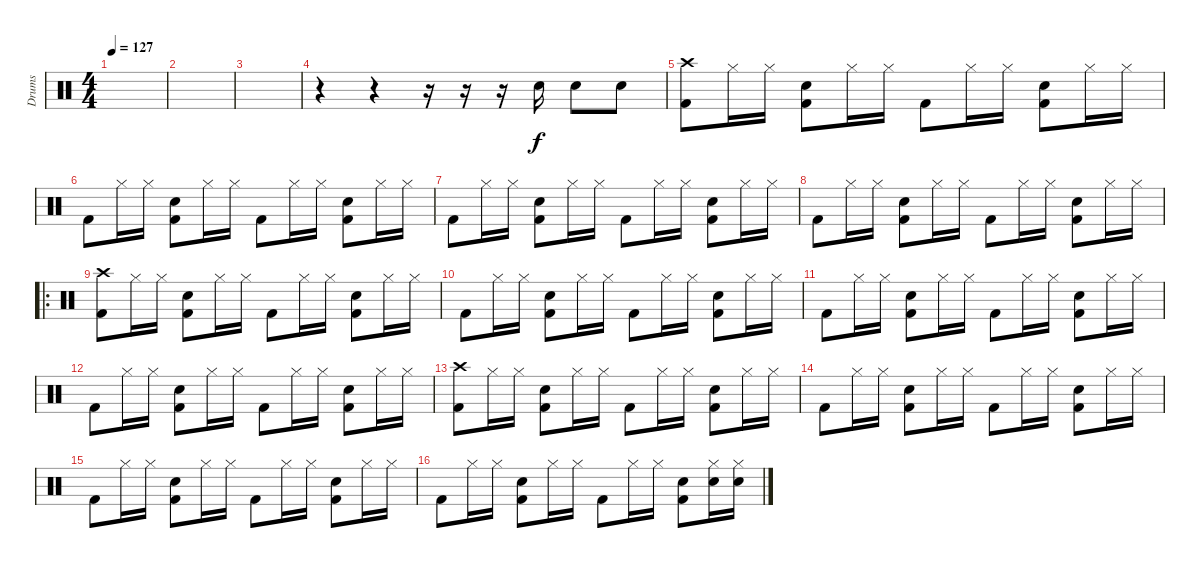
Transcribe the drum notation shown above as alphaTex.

\track ("Drums" "Drums") {instrument percussion}
\staff {score}
\articulation defaults
\ts (4 4)
\tempo 127
\clef neutral
\ks c
|
|
|
r.4 r.4 r.16 r.16 r.16 "Electric Snare (hit)".16 "Snare (hit) 2".8 "Snare (hit) 2".8 |
("Crash high (hit)" "Kick (hit) 2").8 "Hi-Hat (closed)".16 "Hi-Hat (closed)".16 ("Kick (hit) 2" "Snare (hit) 2").8 "Hi-Hat (closed)".16 "Hi-Hat (closed)".16 "Kick (hit) 2".8 "Hi-Hat (closed)".16 "Hi-Hat (closed)".16 ("Kick (hit) 2" "Snare (hit) 2").8 "Hi-Hat (closed)".16 "Hi-Hat (closed)".16 |
"Kick (hit) 2".8 "Hi-Hat (closed)".16 "Hi-Hat (closed)".16 ("Kick (hit) 2" "Snare (hit) 2").8 "Hi-Hat (closed)".16 "Hi-Hat (closed)".16 "Kick (hit) 2".8 "Hi-Hat (closed)".16 "Hi-Hat (closed)".16 ("Kick (hit) 2" "Snare (hit) 2").8 "Hi-Hat (closed)".16 "Hi-Hat (closed)".16 |
"Kick (hit) 2".8 "Hi-Hat (closed)".16 "Hi-Hat (closed)".16 ("Kick (hit) 2" "Snare (hit) 2").8 "Hi-Hat (closed)".16 "Hi-Hat (closed)".16 "Kick (hit) 2".8 "Hi-Hat (closed)".16 "Hi-Hat (closed)".16 ("Kick (hit) 2" "Snare (hit) 2").8 "Hi-Hat (closed)".16 "Hi-Hat (closed)".16 |
"Kick (hit) 2".8 "Hi-Hat (closed)".16 "Hi-Hat (closed)".16 ("Kick (hit) 2" "Snare (hit) 2").8 "Hi-Hat (closed)".16 "Hi-Hat (closed)".16 "Kick (hit) 2".8 "Hi-Hat (closed)".16 "Hi-Hat (closed)".16 ("Kick (hit) 2" "Snare (hit) 2").8 "Hi-Hat (closed)".16 "Hi-Hat (closed)".16 |
\ro
("Crash high (hit)" "Kick (hit) 2").8 "Hi-Hat (closed)".16 "Hi-Hat (closed)".16 ("Kick (hit) 2" "Snare (hit) 2").8 "Hi-Hat (closed)".16 "Hi-Hat (closed)".16 "Kick (hit) 2".8 "Hi-Hat (closed)".16 "Hi-Hat (closed)".16 ("Kick (hit) 2" "Snare (hit) 2").8 "Hi-Hat (closed)".16 "Hi-Hat (closed)".16 |
"Kick (hit) 2".8 "Hi-Hat (closed)".16 "Hi-Hat (closed)".16 ("Kick (hit) 2" "Snare (hit) 2").8 "Hi-Hat (closed)".16 "Hi-Hat (closed)".16 "Kick (hit) 2".8 "Hi-Hat (closed)".16 "Hi-Hat (closed)".16 ("Kick (hit) 2" "Snare (hit) 2").8 "Hi-Hat (closed)".16 "Hi-Hat (closed)".16 |
"Kick (hit) 2".8 "Hi-Hat (closed)".16 "Hi-Hat (closed)".16 ("Kick (hit) 2" "Snare (hit) 2").8 "Hi-Hat (closed)".16 "Hi-Hat (closed)".16 "Kick (hit) 2".8 "Hi-Hat (closed)".16 "Hi-Hat (closed)".16 ("Kick (hit) 2" "Snare (hit) 2").8 "Hi-Hat (closed)".16 "Hi-Hat (closed)".16 |
"Kick (hit) 2".8 "Hi-Hat (closed)".16 "Hi-Hat (closed)".16 ("Kick (hit) 2" "Snare (hit) 2").8 "Hi-Hat (closed)".16 "Hi-Hat (closed)".16 "Kick (hit) 2".8 "Hi-Hat (closed)".16 "Hi-Hat (closed)".16 ("Kick (hit) 2" "Snare (hit) 2").8 "Hi-Hat (closed)".16 "Hi-Hat (closed)".16 |
("Crash high (hit)" "Kick (hit) 2").8 "Hi-Hat (closed)".16 "Hi-Hat (closed)".16 ("Kick (hit) 2" "Snare (hit) 2").8 "Hi-Hat (closed)".16 "Hi-Hat (closed)".16 "Kick (hit) 2".8 "Hi-Hat (closed)".16 "Hi-Hat (closed)".16 ("Kick (hit) 2" "Snare (hit) 2").8 "Hi-Hat (closed)".16 "Hi-Hat (closed)".16 |
"Kick (hit) 2".8 "Hi-Hat (closed)".16 "Hi-Hat (closed)".16 ("Kick (hit) 2" "Snare (hit) 2").8 "Hi-Hat (closed)".16 "Hi-Hat (closed)".16 "Kick (hit) 2".8 "Hi-Hat (closed)".16 "Hi-Hat (closed)".16 ("Kick (hit) 2" "Snare (hit) 2").8 "Hi-Hat (closed)".16 "Hi-Hat (closed)".16 |
"Kick (hit) 2".8 "Hi-Hat (closed)".16 "Hi-Hat (closed)".16 ("Kick (hit) 2" "Snare (hit) 2").8 "Hi-Hat (closed)".16 "Hi-Hat (closed)".16 "Kick (hit) 2".8 "Hi-Hat (closed)".16 "Hi-Hat (closed)".16 ("Kick (hit) 2" "Snare (hit) 2").8 "Hi-Hat (closed)".16 "Hi-Hat (closed)".16 |
"Kick (hit) 2".8 "Hi-Hat (closed)".16 "Hi-Hat (closed)".16 ("Kick (hit) 2" "Snare (hit) 2").8 "Hi-Hat (closed)".16 "Hi-Hat (closed)".16 "Kick (hit) 2".8 "Hi-Hat (closed)".16 "Hi-Hat (closed)".16 ("Kick (hit) 2" "Snare (hit) 2").8 ("Snare (hit) 2" "Hi-Hat (closed)").16 ("Snare (hit) 2" "Hi-Hat (closed)").16
